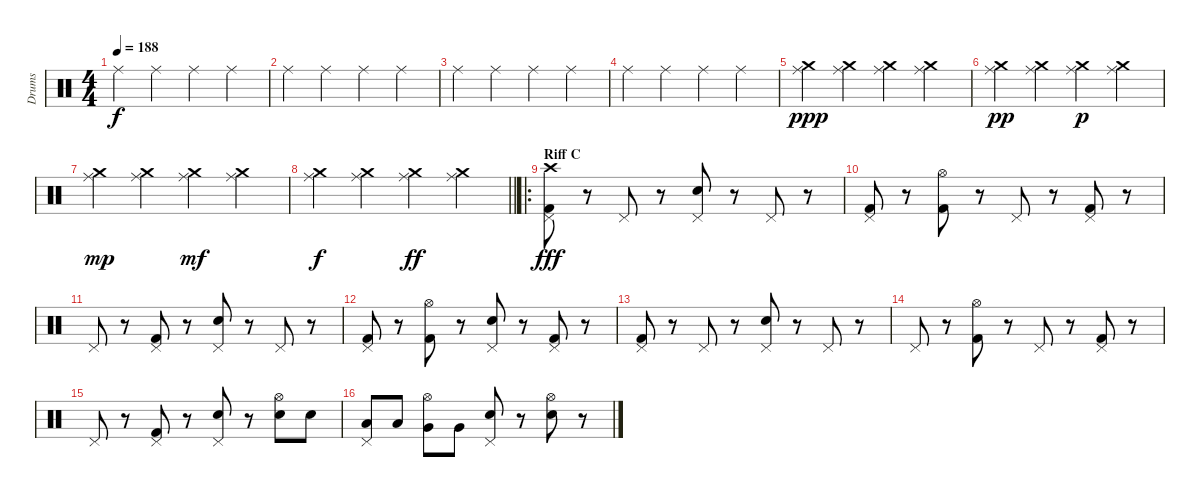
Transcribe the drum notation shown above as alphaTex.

\track ("Drums" "Drums") {instrument percussion}
\staff {score}
\articulation defaults
\ts (4 4)
\tempo 188
\clef neutral
\ks c "Ride (middle)".4{dy f} "Ride (middle)".4 "Ride (middle)".4 "Ride (middle)".4
|
"Ride (middle)".4 "Ride (middle)".4 "Ride (middle)".4 "Ride (middle)".4 |
"Ride (middle)".4 "Ride (middle)".4 "Ride (middle)".4 "Ride (middle)".4 |
"Ride (middle)".4 "Ride (middle)".4 "Ride (middle)".4 "Ride (middle)".4 |
("Ride (middle)" "Crash medium (hit)").4{dy ppp} ("Ride (middle)" "Crash medium (hit)").4 ("Ride (middle)" "Crash medium (hit)").4 ("Ride (middle)" "Crash medium (hit)").4 |
("Ride (middle)" "Crash medium (hit)").4{dy pp} ("Ride (middle)" "Crash medium (hit)").4 ("Ride (middle)" "Crash medium (hit)").4{dy p} ("Ride (middle)" "Crash medium (hit)").4 |
("Ride (middle)" "Crash medium (hit)").4{dy mp} ("Ride (middle)" "Crash medium (hit)").4 ("Ride (middle)" "Crash medium (hit)").4{dy mf} ("Ride (middle)" "Crash medium (hit)").4 |
\barLineRight lightlight
("Ride (middle)" "Crash medium (hit)").4{dy f} ("Ride (middle)" "Crash medium (hit)").4 ("Ride (middle)" "Crash medium (hit)").4{dy ff} ("Ride (middle)" "Crash medium (hit)").4 |
\ro
\section ("" "Riff C")
("Crash high (hit)" "Pedal Hi-Hat (hit)" "Kick (hit) 2").8{dy fff} r.8 "Pedal Hi-Hat (hit)".8 r.8 ("Pedal Hi-Hat (hit)" "Electric Snare (hit)").8 r.8 "Pedal Hi-Hat (hit)".8 r.8 |
("Pedal Hi-Hat (hit)" "Kick (hit) 2").8 r.8 ("Hi-Hat (open)" "Kick (hit) 2").8 r.8 "Pedal Hi-Hat (hit)".8 r.8 ("Pedal Hi-Hat (hit)" "Kick (hit) 2").8 r.8 |
"Pedal Hi-Hat (hit)".8 r.8 ("Pedal Hi-Hat (hit)" "Kick (hit) 2").8 r.8 ("Pedal Hi-Hat (hit)" "Electric Snare (hit)").8 r.8 "Pedal Hi-Hat (hit)".8 r.8 |
("Pedal Hi-Hat (hit)" "Kick (hit) 2").8 r.8 ("Hi-Hat (open)" "Kick (hit) 2").8 r.8 ("Pedal Hi-Hat (hit)" "Electric Snare (hit)").8 r.8 ("Pedal Hi-Hat (hit)" "Kick (hit) 2").8 r.8 |
("Pedal Hi-Hat (hit)" "Kick (hit) 2").8 r.8 "Pedal Hi-Hat (hit)".8 r.8 ("Pedal Hi-Hat (hit)" "Electric Snare (hit)").8 r.8 "Pedal Hi-Hat (hit)".8 r.8 |
"Pedal Hi-Hat (hit)".8 r.8 ("Hi-Hat (open)" "Kick (hit) 2").8 r.8 "Pedal Hi-Hat (hit)".8 r.8 ("Pedal Hi-Hat (hit)" "Kick (hit) 2").8 r.8 |
"Pedal Hi-Hat (hit)".8 r.8 ("Pedal Hi-Hat (hit)" "Kick (hit) 2").8 r.8 ("Pedal Hi-Hat (hit)" "Electric Snare (hit)").8 r.8 ("Hi-Hat (open)" "Electric Snare (hit)").8 "Electric Snare (hit)".8 |
("Pedal Hi-Hat (hit)" "Low Tom (hit)").8 "Low Tom (hit)".8 ("Hi-Hat (open)" "Very Low Tom (hit)").8 "Very Low Tom (hit)".8 ("Pedal Hi-Hat (hit)" "Electric Snare (hit)").8 r.8 ("Hi-Hat (open)" "Electric Snare (hit)").8 r.8
